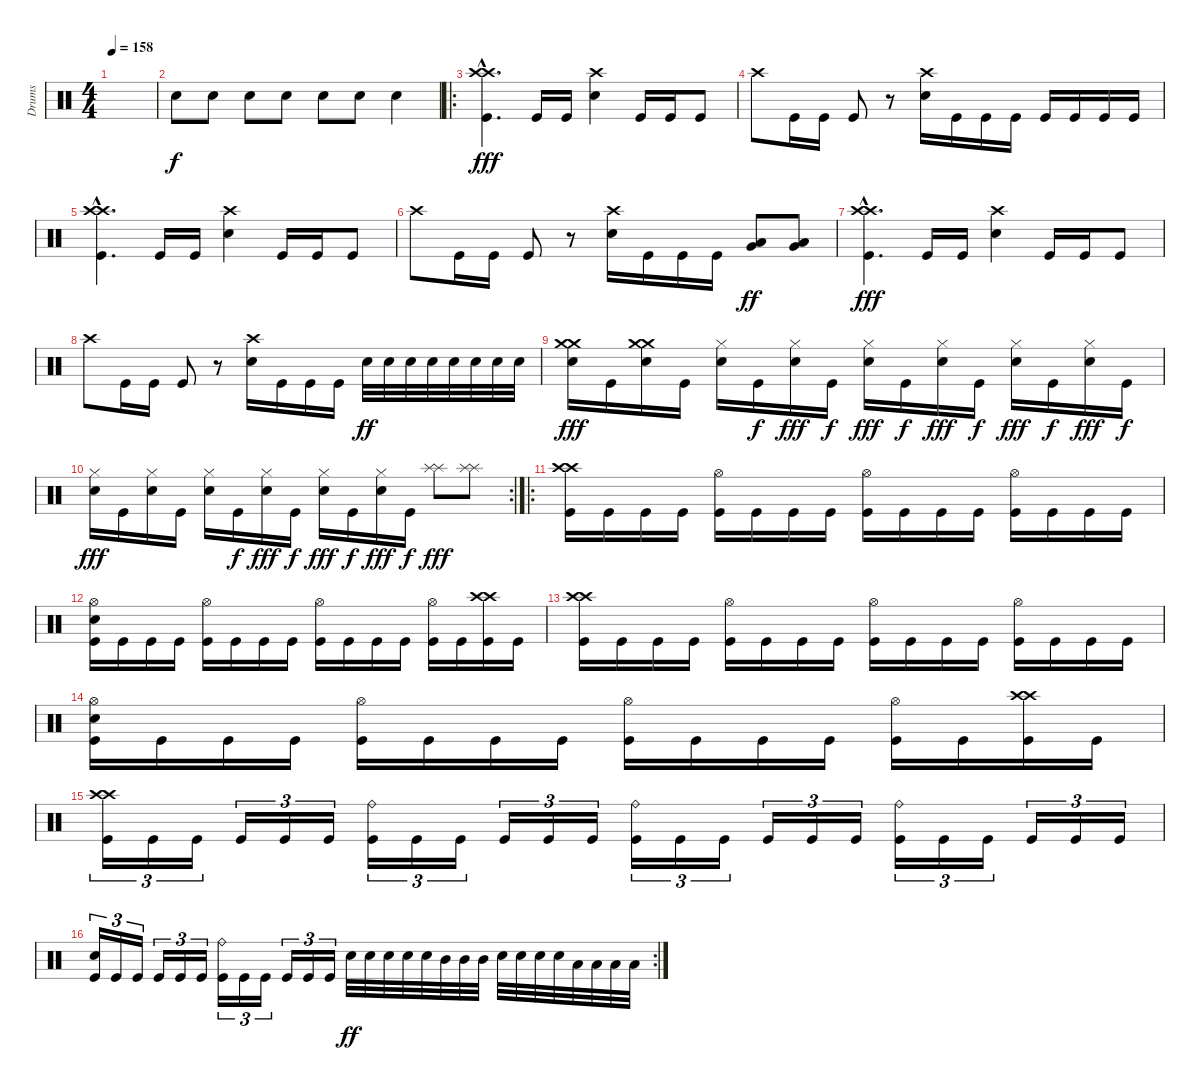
\track ("Drums" "Drums") {instrument percussion}
\staff {score}
\articulation defaults
\ts (4 4)
\tempo 158
\clef neutral
\ks c
|
"Electric Snare (hit)".8 "Electric Snare (hit)".8 "Electric Snare (hit)".8 "Electric Snare (hit)".8 "Electric Snare (hit)".8 "Electric Snare (hit)".8 "Electric Snare (hit)".4 |
\ro
("Crash high (hit)"{hac} "Crash high (hit)"{hac} "Kick (hit)"{hac}).4{d dy fff} "Kick (hit)".16 "Kick (hit)".16 ("Electric Snare (hit)" "Crash high (hit)").4 "Kick (hit)".16 "Kick (hit)".16 "Kick (hit)".8 |
"Crash high (hit)".8 "Kick (hit)".16 "Kick (hit)".16 "Kick (hit)".8 r.8 ("Electric Snare (hit)" "Crash high (hit)").16 "Kick (hit)".16 "Kick (hit)".16 "Kick (hit)".16 "Kick (hit)".16 "Kick (hit)".16 "Kick (hit)".16 "Kick (hit)".16 |
("Crash high (hit)"{hac} "Crash high (hit)"{hac} "Kick (hit)"{hac}).4{d} "Kick (hit)".16 "Kick (hit)".16 ("Electric Snare (hit)" "Crash high (hit)").4 "Kick (hit)".16 "Kick (hit)".16 "Kick (hit)".8 |
"Crash high (hit)".8 "Kick (hit)".16 "Kick (hit)".16 "Kick (hit)".8 r.8 ("Electric Snare (hit)" "Crash high (hit)").16 "Kick (hit)".16 "Kick (hit)".16 "Kick (hit)".16 ("Low Tom (hit)" "Very Low Tom (hit)").8{dy ff} ("Low Tom (hit)" "Very Low Tom (hit)").8 |
("Crash high (hit)"{hac} "Crash high (hit)"{hac} "Kick (hit)"{hac}).4{d dy fff} "Kick (hit)".16 "Kick (hit)".16 ("Electric Snare (hit)" "Crash high (hit)").4 "Kick (hit)".16 "Kick (hit)".16 "Kick (hit)".8 |
"Crash high (hit)".8 "Kick (hit)".16 "Kick (hit)".16 "Kick (hit)".8 r.8 ("Electric Snare (hit)" "Crash high (hit)").16 "Kick (hit)".16 "Kick (hit)".16 "Kick (hit)".16 "Electric Snare (hit)".32{dy ff} "Electric Snare (hit)".32 "Electric Snare (hit)".32 "Electric Snare (hit)".32 "Electric Snare (hit)".32 "Electric Snare (hit)".32 "Electric Snare (hit)".32 "Electric Snare (hit)".32 |
("Electric Snare (hit)" "Crash medium (hit)" "Crash medium (hit)").16{dy fff} "Kick (hit)".16 ("Electric Snare (hit)" "Crash medium (hit)" "Crash medium (hit)").16 "Kick (hit)".16 ("Electric Snare (hit)" "Hi-Hat (closed)").16 "Kick (hit)".16{dy f} ("Electric Snare (hit)" "Hi-Hat (closed)").16{dy fff} "Kick (hit)".16{dy f} ("Electric Snare (hit)" "Hi-Hat (closed)").16{dy fff} "Kick (hit)".16{dy f} ("Electric Snare (hit)" "Hi-Hat (closed)").16{dy fff} "Kick (hit)".16{dy f} ("Electric Snare (hit)" "Hi-Hat (closed)").16{dy fff} "Kick (hit)".16{dy f} ("Electric Snare (hit)" "Hi-Hat (closed)").16{dy fff} "Kick (hit)".16{dy f} |
\rc 2
("Electric Snare (hit)" "Hi-Hat (closed)").16{dy fff} "Kick (hit)".16 ("Electric Snare (hit)" "Hi-Hat (closed)").16 "Kick (hit)".16 ("Electric Snare (hit)" "Hi-Hat (closed)").16 "Kick (hit)".16{dy f} ("Electric Snare (hit)" "Hi-Hat (closed)").16{dy fff} "Kick (hit)".16{dy f} ("Electric Snare (hit)" "Hi-Hat (closed)").16{dy fff} "Kick (hit)".16{dy f} ("Electric Snare (hit)" "Hi-Hat (closed)").16{dy fff} "Kick (hit)".16{dy f} ("Splash (hit)" "Splash (hit)").8{dy fff} ("Splash (hit)" "Splash (hit)").8 |
\ro
("Crash high (hit)" "Crash high (hit)" "Kick (hit)").16 "Kick (hit)".16 "Kick (hit)".16 "Kick (hit)".16 ("Hi-Hat (open)" "Kick (hit)").16 "Kick (hit)".16 "Kick (hit)".16 "Kick (hit)".16 ("Hi-Hat (open)" "Kick (hit)").16 "Kick (hit)".16 "Kick (hit)".16 "Kick (hit)".16 ("Hi-Hat (open)" "Kick (hit)").16 "Kick (hit)".16 "Kick (hit)".16 "Kick (hit)".16 |
("Electric Snare (hit)" "Hi-Hat (open)" "Kick (hit)").16 "Kick (hit)".16 "Kick (hit)".16 "Kick (hit)".16 ("Hi-Hat (open)" "Kick (hit)").16 "Kick (hit)".16 "Kick (hit)".16 "Kick (hit)".16 ("Hi-Hat (open)" "Kick (hit)").16 "Kick (hit)".16 "Kick (hit)".16 "Kick (hit)".16 ("Hi-Hat (open)" "Kick (hit)").16 "Kick (hit)".16 ("Crash high (hit)" "Crash high (hit)" "Kick (hit)").16 "Kick (hit)".16 |
("Crash high (hit)" "Crash high (hit)" "Kick (hit)").16 "Kick (hit)".16 "Kick (hit)".16 "Kick (hit)".16 ("Hi-Hat (open)" "Kick (hit)").16 "Kick (hit)".16 "Kick (hit)".16 "Kick (hit)".16 ("Hi-Hat (open)" "Kick (hit)").16 "Kick (hit)".16 "Kick (hit)".16 "Kick (hit)".16 ("Hi-Hat (open)" "Kick (hit)").16 "Kick (hit)".16 "Kick (hit)".16 "Kick (hit)".16 |
("Electric Snare (hit)" "Hi-Hat (open)" "Kick (hit)").16 "Kick (hit)".16 "Kick (hit)".16 "Kick (hit)".16 ("Hi-Hat (open)" "Kick (hit)").16 "Kick (hit)".16 "Kick (hit)".16 "Kick (hit)".16 ("Hi-Hat (open)" "Kick (hit)").16 "Kick (hit)".16 "Kick (hit)".16 "Kick (hit)".16 ("Hi-Hat (open)" "Kick (hit)").16 "Kick (hit)".16 ("Crash high (hit)" "Crash high (hit)" "Kick (hit)").16 "Kick (hit)".16 |
("Crash high (hit)" "Crash high (hit)" "Kick (hit)").16{tu (3 2)} "Kick (hit)".16{tu (3 2)} "Kick (hit)".16{tu (3 2)} "Kick (hit)".16{tu (3 2)} "Kick (hit)".16{tu (3 2)} "Kick (hit)".16{tu (3 2)} ("Ride (bell)" "Kick (hit)").16{tu (3 2)} "Kick (hit)".16{tu (3 2)} "Kick (hit)".16{tu (3 2)} "Kick (hit)".16{tu (3 2)} "Kick (hit)".16{tu (3 2)} "Kick (hit)".16{tu (3 2)} ("Ride (bell)" "Kick (hit)").16{tu (3 2)} "Kick (hit)".16{tu (3 2)} "Kick (hit)".16{tu (3 2)} "Kick (hit)".16{tu (3 2)} "Kick (hit)".16{tu (3 2)} "Kick (hit)".16{tu (3 2)} ("Ride (bell)" "Kick (hit)").16{tu (3 2)} "Kick (hit)".16{tu (3 2)} "Kick (hit)".16{tu (3 2)} "Kick (hit)".16{tu (3 2)} "Kick (hit)".16{tu (3 2)} "Kick (hit)".16{tu (3 2)} |
\rc 2
("Electric Snare (hit)" "Kick (hit)").16{tu (3 2)} "Kick (hit)".16{tu (3 2)} "Kick (hit)".16{tu (3 2)} "Kick (hit)".16{tu (3 2)} "Kick (hit)".16{tu (3 2)} "Kick (hit)".16{tu (3 2)} ("Ride (bell)" "Kick (hit)").16{tu (3 2)} "Kick (hit)".16{tu (3 2)} "Kick (hit)".16{tu (3 2)} "Kick (hit)".16{tu (3 2)} "Kick (hit)".16{tu (3 2)} "Kick (hit)".16{tu (3 2)} "Electric Snare (hit)".32{dy ff} "Electric Snare (hit)".32 "Electric Snare (hit)".32 "Electric Snare (hit)".32 "Electric Snare (hit)".32 "Mid Tom (hit)".32 "Mid Tom (hit)".32 "Mid Tom (hit)".32 "Electric Snare (hit)".32 "Electric Snare (hit)".32 "Electric Snare (hit)".32 "Electric Snare (hit)".32 "Low Tom (hit)".32 "Low Tom (hit)".32 "Low Tom (hit)".32 "Low Tom (hit)".32
